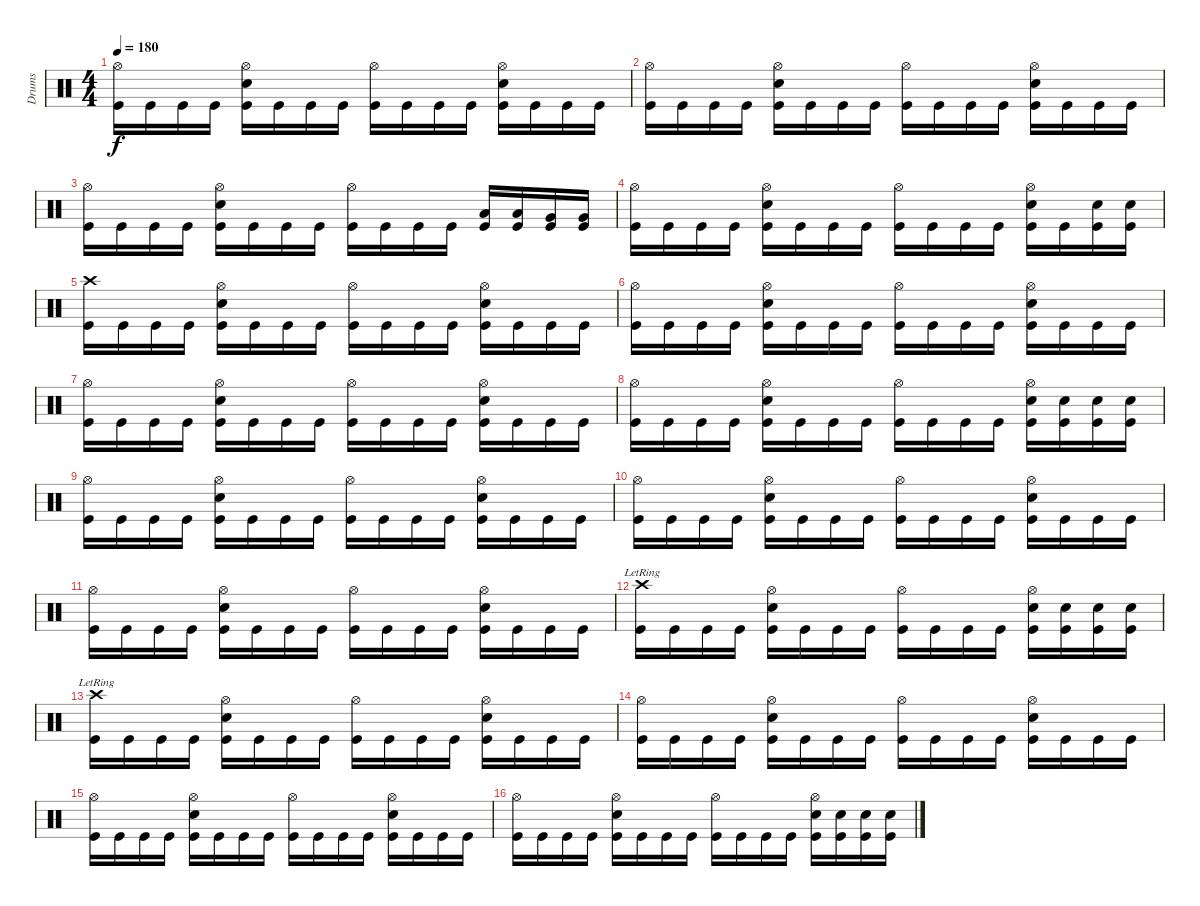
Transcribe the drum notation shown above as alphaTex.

\track ("Drums" "Drums") {instrument percussion}
\staff {score}
\articulation defaults
\ts (4 4)
\tempo 180
\clef neutral
\ks c
("Hi-Hat (open)" "Kick (hit)").16{dy f} "Kick (hit)".16 "Kick (hit)".16 "Kick (hit)".16 ("Hi-Hat (open)" "Electric Snare (hit)" "Kick (hit)").16 "Kick (hit)".16 "Kick (hit)".16 "Kick (hit)".16 ("Hi-Hat (open)" "Kick (hit)").16 "Kick (hit)".16 "Kick (hit)".16 "Kick (hit)".16 ("Hi-Hat (open)" "Electric Snare (hit)" "Kick (hit)").16 "Kick (hit)".16 "Kick (hit)".16 "Kick (hit)".16 |
("Hi-Hat (open)" "Kick (hit)").16 "Kick (hit)".16 "Kick (hit)".16 "Kick (hit)".16 ("Hi-Hat (open)" "Electric Snare (hit)" "Kick (hit)").16 "Kick (hit)".16 "Kick (hit)".16 "Kick (hit)".16 ("Hi-Hat (open)" "Kick (hit)").16 "Kick (hit)".16 "Kick (hit)".16 "Kick (hit)".16 ("Hi-Hat (open)" "Electric Snare (hit)" "Kick (hit)").16 "Kick (hit)".16 "Kick (hit)".16 "Kick (hit)".16 |
("Hi-Hat (open)" "Kick (hit)").16 "Kick (hit)".16 "Kick (hit)".16 "Kick (hit)".16 ("Hi-Hat (open)" "Electric Snare (hit)" "Kick (hit)").16 "Kick (hit)".16 "Kick (hit)".16 "Kick (hit)".16 ("Hi-Hat (open)" "Kick (hit)").16 "Kick (hit)".16 "Kick (hit)".16 "Kick (hit)".16 ("Low Tom (hit)" "Kick (hit)").16 ("Low Tom (hit)" "Kick (hit)").16 ("Very Low Tom (hit)" "Kick (hit)").16 ("Very Low Tom (hit)" "Kick (hit)").16 |
("Hi-Hat (open)" "Kick (hit)").16 "Kick (hit)".16 "Kick (hit)".16 "Kick (hit)".16 ("Hi-Hat (open)" "Electric Snare (hit)" "Kick (hit)").16 "Kick (hit)".16 "Kick (hit)".16 "Kick (hit)".16 ("Hi-Hat (open)" "Kick (hit)").16 "Kick (hit)".16 "Kick (hit)".16 "Kick (hit)".16 ("Hi-Hat (open)" "Electric Snare (hit)" "Kick (hit)").16 "Kick (hit)".16 ("Electric Snare (hit)" "Kick (hit)").16 ("Electric Snare (hit)" "Kick (hit)").16 |
("Crash high (hit)" "Kick (hit)").16 "Kick (hit)".16 "Kick (hit)".16 "Kick (hit)".16 ("Hi-Hat (open)" "Electric Snare (hit)" "Kick (hit)").16 "Kick (hit)".16 "Kick (hit)".16 "Kick (hit)".16 ("Hi-Hat (open)" "Kick (hit)").16 "Kick (hit)".16 "Kick (hit)".16 "Kick (hit)".16 ("Hi-Hat (open)" "Electric Snare (hit)" "Kick (hit)").16 "Kick (hit)".16 "Kick (hit)".16 "Kick (hit)".16 |
("Hi-Hat (open)" "Kick (hit)").16 "Kick (hit)".16 "Kick (hit)".16 "Kick (hit)".16 ("Hi-Hat (open)" "Electric Snare (hit)" "Kick (hit)").16 "Kick (hit)".16 "Kick (hit)".16 "Kick (hit)".16 ("Hi-Hat (open)" "Kick (hit)").16 "Kick (hit)".16 "Kick (hit)".16 "Kick (hit)".16 ("Hi-Hat (open)" "Electric Snare (hit)" "Kick (hit)").16 "Kick (hit)".16 "Kick (hit)".16 "Kick (hit)".16 |
("Hi-Hat (open)" "Kick (hit)").16 "Kick (hit)".16 "Kick (hit)".16 "Kick (hit)".16 ("Hi-Hat (open)" "Electric Snare (hit)" "Kick (hit)").16 "Kick (hit)".16 "Kick (hit)".16 "Kick (hit)".16 ("Hi-Hat (open)" "Kick (hit)").16 "Kick (hit)".16 "Kick (hit)".16 "Kick (hit)".16 ("Hi-Hat (open)" "Electric Snare (hit)" "Kick (hit)").16 "Kick (hit)".16 "Kick (hit)".16 "Kick (hit)".16 |
("Hi-Hat (open)" "Kick (hit)").16 "Kick (hit)".16 "Kick (hit)".16 "Kick (hit)".16 ("Hi-Hat (open)" "Electric Snare (hit)" "Kick (hit)").16 "Kick (hit)".16 "Kick (hit)".16 "Kick (hit)".16 ("Hi-Hat (open)" "Kick (hit)").16 "Kick (hit)".16 "Kick (hit)".16 "Kick (hit)".16 ("Hi-Hat (open)" "Electric Snare (hit)" "Kick (hit)").16 ("Electric Snare (hit)" "Kick (hit)").16 ("Electric Snare (hit)" "Kick (hit)").16 ("Electric Snare (hit)" "Kick (hit)").16 |
("Hi-Hat (open)" "Kick (hit)").16 "Kick (hit)".16 "Kick (hit)".16 "Kick (hit)".16 ("Hi-Hat (open)" "Electric Snare (hit)" "Kick (hit)").16 "Kick (hit)".16 "Kick (hit)".16 "Kick (hit)".16 ("Hi-Hat (open)" "Kick (hit)").16 "Kick (hit)".16 "Kick (hit)".16 "Kick (hit)".16 ("Hi-Hat (open)" "Electric Snare (hit)" "Kick (hit)").16 "Kick (hit)".16 "Kick (hit)".16 "Kick (hit)".16 |
("Hi-Hat (open)" "Kick (hit)").16 "Kick (hit)".16 "Kick (hit)".16 "Kick (hit)".16 ("Hi-Hat (open)" "Electric Snare (hit)" "Kick (hit)").16 "Kick (hit)".16 "Kick (hit)".16 "Kick (hit)".16 ("Hi-Hat (open)" "Kick (hit)").16 "Kick (hit)".16 "Kick (hit)".16 "Kick (hit)".16 ("Hi-Hat (open)" "Electric Snare (hit)" "Kick (hit)").16 "Kick (hit)".16 "Kick (hit)".16 "Kick (hit)".16 |
("Hi-Hat (open)" "Kick (hit)").16 "Kick (hit)".16 "Kick (hit)".16 "Kick (hit)".16 ("Hi-Hat (open)" "Electric Snare (hit)" "Kick (hit)").16 "Kick (hit)".16 "Kick (hit)".16 "Kick (hit)".16 ("Hi-Hat (open)" "Kick (hit)").16 "Kick (hit)".16 "Kick (hit)".16 "Kick (hit)".16 ("Hi-Hat (open)" "Electric Snare (hit)" "Kick (hit)").16 "Kick (hit)".16 "Kick (hit)".16 "Kick (hit)".16 |
("Crash high (hit)"{lr} "Kick (hit)").16 "Kick (hit)".16 "Kick (hit)".16 "Kick (hit)".16 ("Hi-Hat (open)" "Electric Snare (hit)" "Kick (hit)").16 "Kick (hit)".16 "Kick (hit)".16 "Kick (hit)".16 ("Hi-Hat (open)" "Kick (hit)").16 "Kick (hit)".16 "Kick (hit)".16 "Kick (hit)".16 ("Hi-Hat (open)" "Electric Snare (hit)" "Kick (hit)").16 ("Electric Snare (hit)" "Kick (hit)").16 ("Electric Snare (hit)" "Kick (hit)").16 ("Electric Snare (hit)" "Kick (hit)").16 |
("Crash high (hit)"{lr} "Kick (hit)").16 "Kick (hit)".16 "Kick (hit)".16 "Kick (hit)".16 ("Hi-Hat (open)" "Electric Snare (hit)" "Kick (hit)").16 "Kick (hit)".16 "Kick (hit)".16 "Kick (hit)".16 ("Hi-Hat (open)" "Kick (hit)").16 "Kick (hit)".16 "Kick (hit)".16 "Kick (hit)".16 ("Hi-Hat (open)" "Electric Snare (hit)" "Kick (hit)").16 "Kick (hit)".16 "Kick (hit)".16 "Kick (hit)".16 |
("Hi-Hat (open)" "Kick (hit)").16 "Kick (hit)".16 "Kick (hit)".16 "Kick (hit)".16 ("Hi-Hat (open)" "Electric Snare (hit)" "Kick (hit)").16 "Kick (hit)".16 "Kick (hit)".16 "Kick (hit)".16 ("Hi-Hat (open)" "Kick (hit)").16 "Kick (hit)".16 "Kick (hit)".16 "Kick (hit)".16 ("Hi-Hat (open)" "Electric Snare (hit)" "Kick (hit)").16 "Kick (hit)".16 "Kick (hit)".16 "Kick (hit)".16 |
("Hi-Hat (open)" "Kick (hit)").16 "Kick (hit)".16 "Kick (hit)".16 "Kick (hit)".16 ("Hi-Hat (open)" "Electric Snare (hit)" "Kick (hit)").16 "Kick (hit)".16 "Kick (hit)".16 "Kick (hit)".16 ("Hi-Hat (open)" "Kick (hit)").16 "Kick (hit)".16 "Kick (hit)".16 "Kick (hit)".16 ("Hi-Hat (open)" "Electric Snare (hit)" "Kick (hit)").16 "Kick (hit)".16 "Kick (hit)".16 "Kick (hit)".16 |
("Hi-Hat (open)" "Kick (hit)").16 "Kick (hit)".16 "Kick (hit)".16 "Kick (hit)".16 ("Hi-Hat (open)" "Electric Snare (hit)" "Kick (hit)").16 "Kick (hit)".16 "Kick (hit)".16 "Kick (hit)".16 ("Hi-Hat (open)" "Kick (hit)").16 "Kick (hit)".16 "Kick (hit)".16 "Kick (hit)".16 ("Hi-Hat (open)" "Electric Snare (hit)" "Kick (hit)").16 ("Electric Snare (hit)" "Kick (hit)").16 ("Electric Snare (hit)" "Kick (hit)").16 ("Electric Snare (hit)" "Kick (hit)").16
